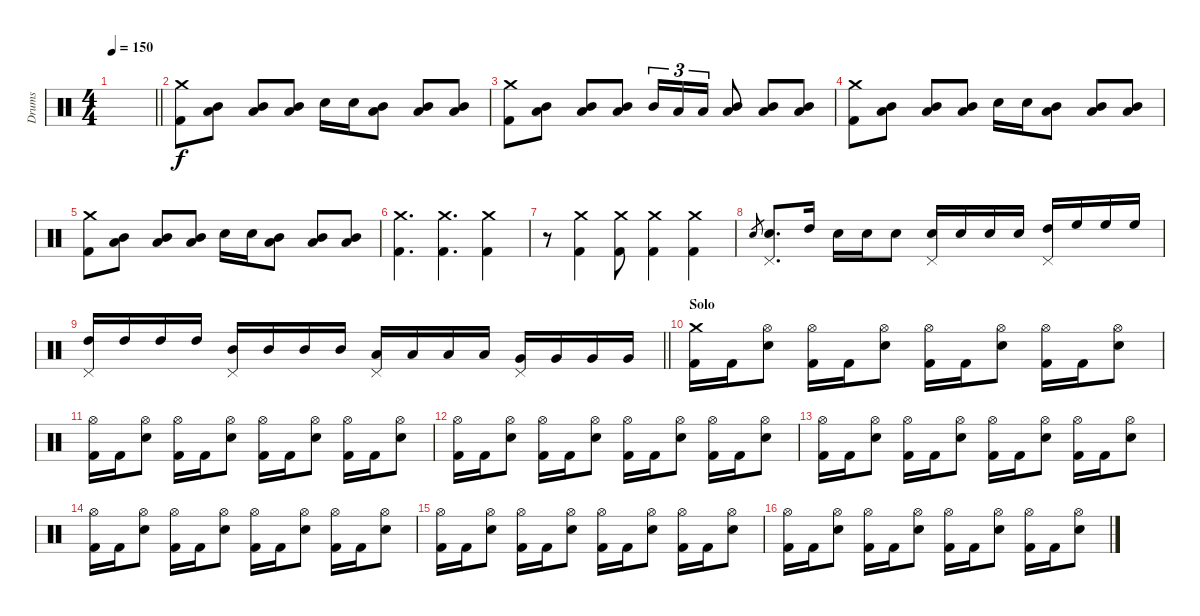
\track ("Drums" "Drums") {instrument percussion}
\staff {score}
\articulation defaults
\ts (4 4)
\tempo 150
\clef neutral
\barLineRight lightlight
\ks c
|
\section ("" "")
("Crash medium (hit)" "Kick (hit) 2").8 ("Mid Tom (hit)" "Low Tom (hit)").8 ("Mid Tom (hit)" "Low Tom (hit)").8 ("Mid Tom (hit)" "Low Tom (hit)").8 "Electric Snare (hit)".16 "Electric Snare (hit)".16 ("Low Tom (hit)" "Mid Tom (hit)").8 ("Low Tom (hit)" "Mid Tom (hit)").8 ("Low Tom (hit)" "Mid Tom (hit)").8 |
("Crash medium (hit)" "Kick (hit) 2").8 ("Mid Tom (hit)" "Low Tom (hit)").8 ("Mid Tom (hit)" "Low Tom (hit)").8 ("Mid Tom (hit)" "Low Tom (hit)").8 "Mid Tom (hit)".16{tu (3 2)} "Low Tom (hit)".16{tu (3 2)} "Low Tom (hit)".16{tu (3 2)} ("Low Tom (hit)" "Mid Tom (hit)").8 ("Low Tom (hit)" "Mid Tom (hit)").8 ("Low Tom (hit)" "Mid Tom (hit)").8 |
("Crash medium (hit)" "Kick (hit) 2").8 ("Mid Tom (hit)" "Low Tom (hit)").8 ("Mid Tom (hit)" "Low Tom (hit)").8 ("Mid Tom (hit)" "Low Tom (hit)").8 "Electric Snare (hit)".16 "Electric Snare (hit)".16 ("Low Tom (hit)" "Mid Tom (hit)").8 ("Low Tom (hit)" "Mid Tom (hit)").8 ("Low Tom (hit)" "Mid Tom (hit)").8 |
("Crash medium (hit)" "Kick (hit) 2").8 ("Mid Tom (hit)" "Low Tom (hit)").8 ("Mid Tom (hit)" "Low Tom (hit)").8 ("Mid Tom (hit)" "Low Tom (hit)").8 "Electric Snare (hit)".16 "Electric Snare (hit)".16 ("Low Tom (hit)" "Mid Tom (hit)").8 ("Low Tom (hit)" "Mid Tom (hit)").8 ("Low Tom (hit)" "Mid Tom (hit)").8 |
("Crash medium (hit)" "Kick (hit) 2").4{d} ("Crash medium (hit)" "Kick (hit) 2").4{d} ("Crash medium (hit)" "Kick (hit) 2").4 |
r.8 ("Crash medium (hit)" "Kick (hit) 2").4 ("Crash medium (hit)" "Kick (hit) 2").8 ("Crash medium (hit)" "Kick (hit) 2").4 ("Crash medium (hit)" "Kick (hit) 2").4 |
"Electric Snare (hit)".8{gr} ("Electric Snare (hit)" "Pedal Hi-Hat (hit)").8{d} "High Tom (hit)".16 "Electric Snare (hit)".16 "Electric Snare (hit)".16 "Electric Snare (hit)".8 ("Electric Snare (hit)" "Pedal Hi-Hat (hit)").16 "Electric Snare (hit)".16 "Electric Snare (hit)".16 "Electric Snare (hit)".16 ("High Tom (hit)" "Pedal Hi-Hat (hit)").16 "High Floor Tom (hit)".16 "High Floor Tom (hit)".16 "High Floor Tom (hit)".16 |
\barLineRight lightlight
("High Tom (hit)" "Pedal Hi-Hat (hit)").16 "High Tom (hit)".16 "High Tom (hit)".16 "High Tom (hit)".16 ("Mid Tom (hit)" "Pedal Hi-Hat (hit)").16 "Mid Tom (hit)".16 "Mid Tom (hit)".16 "Mid Tom (hit)".16 ("Low Tom (hit)" "Pedal Hi-Hat (hit)").16 "Low Tom (hit)".16 "Low Tom (hit)".16 "Low Tom (hit)".16 ("Very Low Tom (hit)" "Pedal Hi-Hat (hit)").16 "Very Low Tom (hit)".16 "Very Low Tom (hit)".16 "Very Low Tom (hit)".16 |
\section ("" "Solo")
("Crash medium (hit)" "Kick (hit) 2").16 "Kick (hit) 2".16 ("Hi-Hat (open)" "Electric Snare (hit)").8 ("Hi-Hat (open)" "Kick (hit) 2").16 "Kick (hit) 2".16 ("Electric Snare (hit)" "Hi-Hat (open)").8 ("Kick (hit) 2" "Hi-Hat (open)").16 "Kick (hit) 2".16 ("Hi-Hat (open)" "Electric Snare (hit)").8 ("Hi-Hat (open)" "Kick (hit) 2").16 "Kick (hit) 2".16 ("Hi-Hat (open)" "Electric Snare (hit)").8 |
("Hi-Hat (open)" "Kick (hit) 2").16 "Kick (hit) 2".16 ("Hi-Hat (open)" "Electric Snare (hit)").8 ("Hi-Hat (open)" "Kick (hit) 2").16 "Kick (hit) 2".16 ("Electric Snare (hit)" "Hi-Hat (open)").8 ("Kick (hit) 2" "Hi-Hat (open)").16 "Kick (hit) 2".16 ("Hi-Hat (open)" "Electric Snare (hit)").8 ("Hi-Hat (open)" "Kick (hit) 2").16 "Kick (hit) 2".16 ("Hi-Hat (open)" "Electric Snare (hit)").8 |
("Hi-Hat (open)" "Kick (hit) 2").16 "Kick (hit) 2".16 ("Hi-Hat (open)" "Electric Snare (hit)").8 ("Hi-Hat (open)" "Kick (hit) 2").16 "Kick (hit) 2".16 ("Electric Snare (hit)" "Hi-Hat (open)").8 ("Kick (hit) 2" "Hi-Hat (open)").16 "Kick (hit) 2".16 ("Hi-Hat (open)" "Electric Snare (hit)").8 ("Hi-Hat (open)" "Kick (hit) 2").16 "Kick (hit) 2".16 ("Hi-Hat (open)" "Electric Snare (hit)").8 |
("Hi-Hat (open)" "Kick (hit) 2").16 "Kick (hit) 2".16 ("Hi-Hat (open)" "Electric Snare (hit)").8 ("Hi-Hat (open)" "Kick (hit) 2").16 "Kick (hit) 2".16 ("Electric Snare (hit)" "Hi-Hat (open)").8 ("Kick (hit) 2" "Hi-Hat (open)").16 "Kick (hit) 2".16 ("Hi-Hat (open)" "Electric Snare (hit)").8 ("Hi-Hat (open)" "Kick (hit) 2").16 "Kick (hit) 2".16 ("Hi-Hat (open)" "Electric Snare (hit)").8 |
("Hi-Hat (open)" "Kick (hit) 2").16 "Kick (hit) 2".16 ("Hi-Hat (open)" "Electric Snare (hit)").8 ("Hi-Hat (open)" "Kick (hit) 2").16 "Kick (hit) 2".16 ("Electric Snare (hit)" "Hi-Hat (open)").8 ("Kick (hit) 2" "Hi-Hat (open)").16 "Kick (hit) 2".16 ("Hi-Hat (open)" "Electric Snare (hit)").8 ("Hi-Hat (open)" "Kick (hit) 2").16 "Kick (hit) 2".16 ("Hi-Hat (open)" "Electric Snare (hit)").8 |
("Hi-Hat (open)" "Kick (hit) 2").16 "Kick (hit) 2".16 ("Hi-Hat (open)" "Electric Snare (hit)").8 ("Hi-Hat (open)" "Kick (hit) 2").16 "Kick (hit) 2".16 ("Electric Snare (hit)" "Hi-Hat (open)").8 ("Kick (hit) 2" "Hi-Hat (open)").16 "Kick (hit) 2".16 ("Hi-Hat (open)" "Electric Snare (hit)").8 ("Hi-Hat (open)" "Kick (hit) 2").16 "Kick (hit) 2".16 ("Hi-Hat (open)" "Electric Snare (hit)").8 |
("Hi-Hat (open)" "Kick (hit) 2").16 "Kick (hit) 2".16 ("Hi-Hat (open)" "Electric Snare (hit)").8 ("Hi-Hat (open)" "Kick (hit) 2").16 "Kick (hit) 2".16 ("Electric Snare (hit)" "Hi-Hat (open)").8 ("Kick (hit) 2" "Hi-Hat (open)").16 "Kick (hit) 2".16 ("Hi-Hat (open)" "Electric Snare (hit)").8 ("Hi-Hat (open)" "Kick (hit) 2").16 "Kick (hit) 2".16 ("Hi-Hat (open)" "Electric Snare (hit)").8
